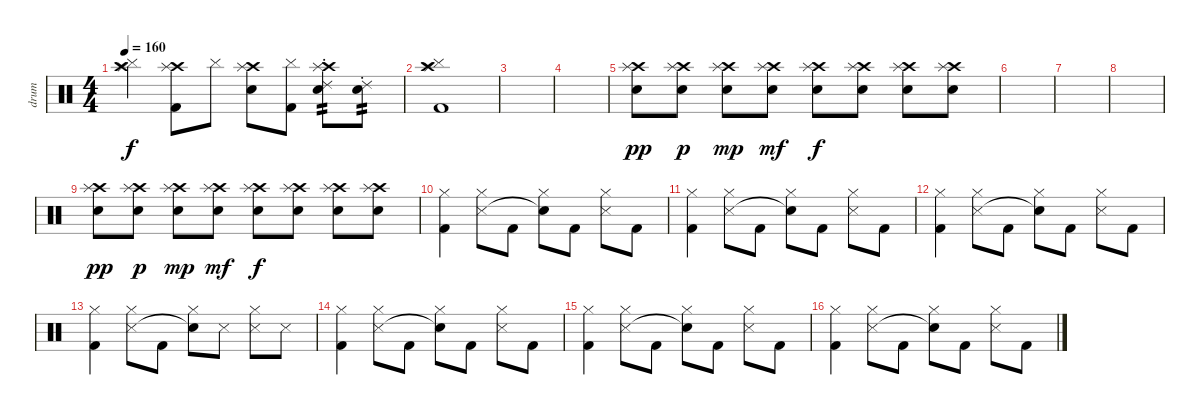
\track ("drum" "drum") {instrument percussion}
\staff {score}
\articulation defaults
\ts (4 4)
\tempo 160
\clef neutral
\ks c
("Crash high (hit)" "Splash (hit)" "Cymbal (hit)").4{dy f} ("Crash high (hit)" "Splash (hit)" "Kick (hit) 2").8 "Cymbal (hit)".8 ("Crash high (hit)" "Splash (hit)" "Electric Snare (hit)").8 ("Cymbal (hit)" "Kick (hit) 2").8 ("Crash high (hit)" "Splash (hit)" "Ride (choke) 2" "Electric Snare (hit)").8{tp 2} ("Ride (choke) 2" "Electric Snare (hit)").8{tp 2} |
("Crash high (hit)" "Splash (hit)" "Cymbal (hit)" "Kick (hit) 2").1 |
|
|
("Crash high (hit)" "Splash (hit)" "Electric Snare (hit)").8{dy pp} ("Crash high (hit)" "Splash (hit)" "Electric Snare (hit)").8{dy p} ("Crash high (hit)" "Splash (hit)" "Electric Snare (hit)").8{dy mp} ("Crash high (hit)" "Splash (hit)" "Electric Snare (hit)").8{dy mf} ("Crash high (hit)" "Splash (hit)" "Electric Snare (hit)").8{dy f} ("Crash high (hit)" "Splash (hit)" "Electric Snare (hit)").8 ("Crash high (hit)" "Splash (hit)" "Electric Snare (hit)").8 ("Crash high (hit)" "Splash (hit)" "Electric Snare (hit)").8 |
|
|
|
("Crash high (hit)" "Splash (hit)" "Electric Snare (hit)").8{dy pp} ("Crash high (hit)" "Splash (hit)" "Electric Snare (hit)").8{dy p} ("Crash high (hit)" "Splash (hit)" "Electric Snare (hit)").8{dy mp} ("Crash high (hit)" "Splash (hit)" "Electric Snare (hit)").8{dy mf} ("Crash high (hit)" "Splash (hit)" "Electric Snare (hit)").8{dy f} ("Crash high (hit)" "Splash (hit)" "Electric Snare (hit)").8 ("Crash high (hit)" "Splash (hit)" "Electric Snare (hit)").8 ("Crash high (hit)" "Splash (hit)" "Electric Snare (hit)").8 |
("Hi-Hat (closed)" "Kick (hit) 2").4 ("Hi-Hat (closed)" "Snare (side stick) 3").8 "Kick (hit) 2".8 ("Hi-Hat (closed)" "Snare (hit)"{t}).8 "Kick (hit) 2".8 ("Hi-Hat (closed)" "Snare (side stick) 3").8 "Kick (hit) 2".8 |
("Hi-Hat (closed)" "Kick (hit) 2").4 ("Hi-Hat (closed)" "Snare (side stick) 3").8 "Kick (hit) 2".8 ("Hi-Hat (closed)" "Snare (hit)"{t}).8 "Kick (hit) 2".8 ("Hi-Hat (closed)" "Snare (side stick) 3").8 "Kick (hit) 2".8 |
("Hi-Hat (closed)" "Kick (hit) 2").4 ("Hi-Hat (closed)" "Snare (side stick) 3").8 "Kick (hit) 2".8 ("Hi-Hat (closed)" "Snare (hit)"{t}).8 "Kick (hit) 2".8 ("Hi-Hat (closed)" "Snare (side stick) 3").8 "Kick (hit) 2".8 |
("Hi-Hat (closed)" "Kick (hit) 2").4 ("Hi-Hat (closed)" "Snare (side stick) 3").8 "Kick (hit) 2".8 ("Hi-Hat (closed)" "Snare (hit)"{t}).8 "Snare (side stick) 3".8 ("Hi-Hat (closed)" "Snare (side stick) 3").8 "Snare (side stick) 3".8 |
("Hi-Hat (closed)" "Kick (hit) 2").4 ("Hi-Hat (closed)" "Snare (side stick) 3").8 "Kick (hit) 2".8 ("Hi-Hat (closed)" "Snare (hit)"{t}).8 "Kick (hit) 2".8 ("Hi-Hat (closed)" "Snare (side stick) 3").8 "Kick (hit) 2".8 |
("Hi-Hat (closed)" "Kick (hit) 2").4 ("Hi-Hat (closed)" "Snare (side stick) 3").8 "Kick (hit) 2".8 ("Hi-Hat (closed)" "Snare (hit)"{t}).8 "Kick (hit) 2".8 ("Hi-Hat (closed)" "Snare (side stick) 3").8 "Kick (hit) 2".8 |
("Hi-Hat (closed)" "Kick (hit) 2").4 ("Hi-Hat (closed)" "Snare (side stick) 3").8 "Kick (hit) 2".8 ("Hi-Hat (closed)" "Snare (hit)"{t}).8 "Kick (hit) 2".8 ("Hi-Hat (closed)" "Snare (side stick) 3").8 "Kick (hit) 2".8
